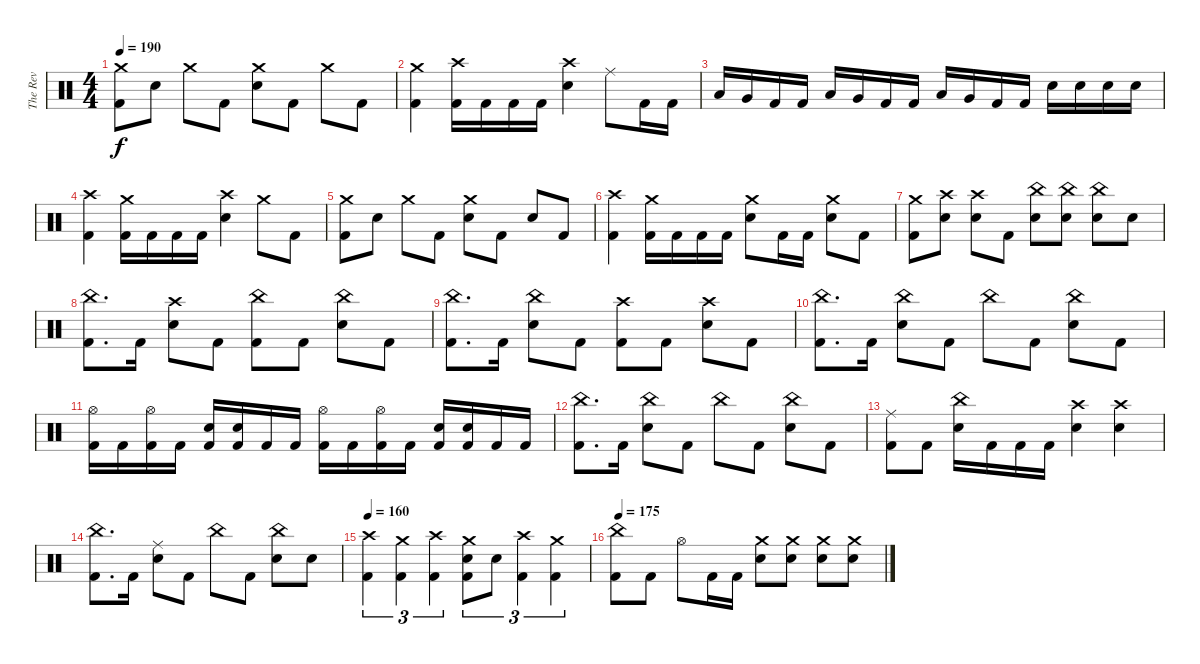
\track ("The Rev" "The Rev") {instrument percussion}
\staff {score}
\articulation defaults
\ts (4 4)
\tempo 190
\clef neutral
\ks c
("Crash medium (hit)" "Kick (hit) 2").8{dy f} "Electric Snare (hit)".8 "Crash medium (hit)".8 "Kick (hit) 2".8 ("Crash medium (hit)" "Electric Snare (hit)").8 "Kick (hit) 2".8 "Crash medium (hit)".8 "Kick (hit) 2".8 |
("Crash medium (hit)" "Kick (hit) 2").4 ("Crash high (hit)" "Kick (hit) 2").16 "Kick (hit) 2".16 "Kick (hit) 2".16 "Kick (hit) 2".16 ("Crash high (hit)" "Electric Snare (hit)").4 "Ride (middle)".8 "Kick (hit) 2".16 "Kick (hit) 2".16 |
"Low Tom (hit)".16 "Very Low Tom (hit)".16 "Kick (hit) 2".16 "Kick (hit) 2".16 "Low Tom (hit)".16 "Very Low Tom (hit)".16 "Kick (hit) 2".16 "Kick (hit) 2".16 "Low Tom (hit)".16 "Very Low Tom (hit)".16 "Kick (hit) 2".16 "Kick (hit) 2".16 "Electric Snare (hit)".16 "Electric Snare (hit)".16 "Electric Snare (hit)".16 "Electric Snare (hit)".16 |
("Crash high (hit)" "Kick (hit) 2").4 ("Crash medium (hit)" "Kick (hit) 2").16 "Kick (hit) 2".16 "Kick (hit) 2".16 "Kick (hit) 2".16 ("Crash high (hit)" "Electric Snare (hit)").4 "Crash medium (hit)".8 "Kick (hit) 2".8 |
("Crash medium (hit)" "Kick (hit) 2").8 "Electric Snare (hit)".8 "Crash medium (hit)".8 "Kick (hit) 2".8 ("Crash medium (hit)" "Electric Snare (hit)").8 "Kick (hit) 2".8 "Electric Snare (hit)".8 "Kick (hit) 2".8 |
("Crash high (hit)" "Kick (hit) 2").4 ("Crash medium (hit)" "Kick (hit) 2").16 "Kick (hit) 2".16 "Kick (hit) 2".16 "Kick (hit) 2".16 ("Crash medium (hit)" "Electric Snare (hit)").8 "Kick (hit) 2".16 "Kick (hit) 2".16 ("Crash medium (hit)" "Electric Snare (hit)").8 "Kick (hit) 2".8 |
("Crash medium (hit)" "Kick (hit) 2").8 ("Crash high (hit)" "Electric Snare (hit)").8 ("Crash high (hit)" "Electric Snare (hit)").8 "Kick (hit) 2".8 ("China (hit)" "Electric Snare (hit)").8 ("China (hit)" "Electric Snare (hit)").8 ("China (hit)" "Electric Snare (hit)").8 "Electric Snare (hit)".8 |
("China (hit)" "Kick (hit) 2").8{d} "Kick (hit) 2".16 ("Crash high (hit)" "Electric Snare (hit)").8 "Kick (hit) 2".8 ("China (hit)" "Kick (hit) 2").8 "Kick (hit) 2".8 ("China (hit)" "Electric Snare (hit)").8 "Kick (hit) 2".8 |
("China (hit)" "Kick (hit) 2").8{d} "Kick (hit) 2".16 ("China (hit)" "Electric Snare (hit)").8 "Kick (hit) 2".8 ("Crash high (hit)" "Kick (hit) 2").8 "Kick (hit) 2".8 ("Crash high (hit)" "Electric Snare (hit)").8 "Kick (hit) 2".8 |
("China (hit)" "Kick (hit) 2").8{d} "Kick (hit) 2".16 ("China (hit)" "Electric Snare (hit)").8 "Kick (hit) 2".8 "China (hit)".8 "Kick (hit) 2".8 ("China (hit)" "Electric Snare (hit)").8 "Kick (hit) 2".8 |
("Hi-Hat (open)" "Kick (hit) 2").16 "Kick (hit) 2".16 ("Hi-Hat (open)" "Kick (hit) 2").16 "Kick (hit) 2".16 ("Electric Snare (hit)" "Kick (hit) 2").16 ("Electric Snare (hit)" "Kick (hit) 2").16 "Kick (hit) 2".16 "Kick (hit) 2".16 ("Hi-Hat (open)" "Kick (hit) 2").16 "Kick (hit) 2".16 ("Hi-Hat (open)" "Kick (hit) 2").16 "Kick (hit) 2".16 ("Electric Snare (hit)" "Kick (hit) 2").16 ("Electric Snare (hit)" "Kick (hit) 2").16 "Kick (hit) 2".16 "Kick (hit) 2".16 |
("China (hit)" "Kick (hit) 2").8{d} "Kick (hit) 2".16 ("China (hit)" "Electric Snare (hit)").8 "Kick (hit) 2".8 "China (hit)".8 "Kick (hit) 2".8 ("China (hit)" "Electric Snare (hit)").8 "Kick (hit) 2".8 |
("Ride (middle)" "Kick (hit) 2").8 "Kick (hit) 2".8 ("China (hit)" "Electric Snare (hit)").16 "Kick (hit) 2".16 "Kick (hit) 2".16 "Kick (hit) 2".16 ("Crash high (hit)" "Electric Snare (hit)").4 ("Crash high (hit)" "Electric Snare (hit)").4 |
("China (hit)" "Kick (hit) 2").8{d} "Kick (hit) 2".16 ("Ride (middle)" "Electric Snare (hit)").8 "Kick (hit) 2".8 "China (hit)".8 "Kick (hit) 2".8 ("China (hit)" "Electric Snare (hit)").8 "Electric Snare (hit)".8 |
\tempo 160
("Crash high (hit)" "Kick (hit) 2").4{tu (3 2)} ("Crash medium (hit)" "Kick (hit) 2").4{tu (3 2)} ("Crash high (hit)" "Kick (hit) 2").4{tu (3 2)} ("Crash medium (hit)" "Electric Snare (hit)" "Kick (hit) 2").8{tu (3 2)} "Electric Snare (hit)".8{tu (3 2)} ("Crash high (hit)" "Kick (hit) 2").4{tu (3 2)} ("Crash medium (hit)" "Kick (hit) 2").4{tu (3 2)} |
\tempo 175
("China (hit)" "Kick (hit) 2").8 "Kick (hit) 2".8 "Hi-Hat (open)".8 "Kick (hit) 2".16 "Kick (hit) 2".16 ("Crash medium (hit)" "Electric Snare (hit)").8 ("Crash medium (hit)" "Electric Snare (hit)").8 ("Crash medium (hit)" "Electric Snare (hit)").8 ("Crash medium (hit)" "Electric Snare (hit)").8
